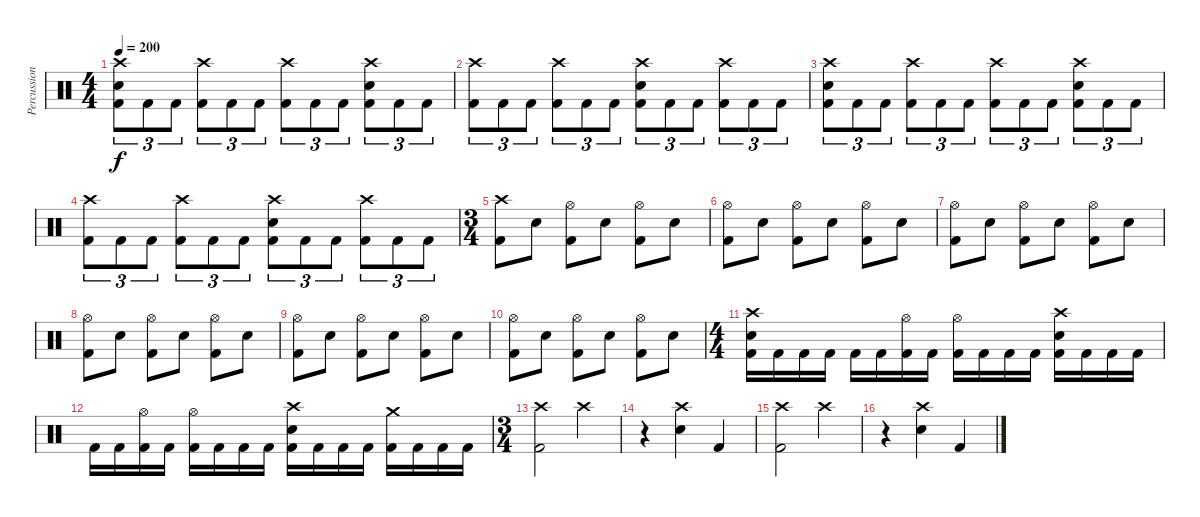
\track ("Percussion" "Percussion") {instrument percussion}
\staff {score}
\articulation defaults
\ts (4 4)
\tempo 200
\clef neutral
\ks c
("Crash high (hit)" "Electric Snare (hit)" "Kick (hit) 2").8{tu (3 2) dy f} "Kick (hit) 2".8{tu (3 2)} "Kick (hit) 2".8{tu (3 2)} ("Crash high (hit)" "Kick (hit) 2").8{tu (3 2)} "Kick (hit) 2".8{tu (3 2)} "Kick (hit) 2".8{tu (3 2)} ("Crash high (hit)" "Kick (hit) 2").8{tu (3 2)} "Kick (hit) 2".8{tu (3 2)} "Kick (hit) 2".8{tu (3 2)} ("Crash high (hit)" "Electric Snare (hit)" "Kick (hit) 2").8{tu (3 2)} "Kick (hit) 2".8{tu (3 2)} "Kick (hit) 2".8{tu (3 2)} |
("Crash high (hit)" "Kick (hit) 2").8{tu (3 2)} "Kick (hit) 2".8{tu (3 2)} "Kick (hit) 2".8{tu (3 2)} ("Crash high (hit)" "Kick (hit) 2").8{tu (3 2)} "Kick (hit) 2".8{tu (3 2)} "Kick (hit) 2".8{tu (3 2)} ("Crash high (hit)" "Electric Snare (hit)" "Kick (hit) 2").8{tu (3 2)} "Kick (hit) 2".8{tu (3 2)} "Kick (hit) 2".8{tu (3 2)} ("Crash high (hit)" "Kick (hit) 2").8{tu (3 2)} "Kick (hit) 2".8{tu (3 2)} "Kick (hit) 2".8{tu (3 2)} |
("Crash high (hit)" "Electric Snare (hit)" "Kick (hit) 2").8{tu (3 2)} "Kick (hit) 2".8{tu (3 2)} "Kick (hit) 2".8{tu (3 2)} ("Crash high (hit)" "Kick (hit) 2").8{tu (3 2)} "Kick (hit) 2".8{tu (3 2)} "Kick (hit) 2".8{tu (3 2)} ("Crash high (hit)" "Kick (hit) 2").8{tu (3 2)} "Kick (hit) 2".8{tu (3 2)} "Kick (hit) 2".8{tu (3 2)} ("Crash high (hit)" "Electric Snare (hit)" "Kick (hit) 2").8{tu (3 2)} "Kick (hit) 2".8{tu (3 2)} "Kick (hit) 2".8{tu (3 2)} |
("Crash high (hit)" "Kick (hit) 2").8{tu (3 2)} "Kick (hit) 2".8{tu (3 2)} "Kick (hit) 2".8{tu (3 2)} ("Crash high (hit)" "Kick (hit) 2").8{tu (3 2)} "Kick (hit) 2".8{tu (3 2)} "Kick (hit) 2".8{tu (3 2)} ("Crash high (hit)" "Electric Snare (hit)" "Kick (hit) 2").8{tu (3 2)} "Kick (hit) 2".8{tu (3 2)} "Kick (hit) 2".8{tu (3 2)} ("Crash high (hit)" "Kick (hit) 2").8{tu (3 2)} "Kick (hit) 2".8{tu (3 2)} "Kick (hit) 2".8{tu (3 2)} |
\ts (3 4)
("Crash high (hit)" "Kick (hit) 2").8 "Electric Snare (hit)".8 ("Hi-Hat (open)" "Kick (hit) 2").8 "Electric Snare (hit)".8 ("Hi-Hat (open)" "Kick (hit) 2").8 "Electric Snare (hit)".8 |
("Hi-Hat (open)" "Kick (hit) 2").8 "Electric Snare (hit)".8 ("Hi-Hat (open)" "Kick (hit) 2").8 "Electric Snare (hit)".8 ("Hi-Hat (open)" "Kick (hit) 2").8 "Electric Snare (hit)".8 |
("Hi-Hat (open)" "Kick (hit) 2").8 "Electric Snare (hit)".8 ("Hi-Hat (open)" "Kick (hit) 2").8 "Electric Snare (hit)".8 ("Hi-Hat (open)" "Kick (hit) 2").8 "Electric Snare (hit)".8 |
("Hi-Hat (open)" "Kick (hit) 2").8 "Electric Snare (hit)".8 ("Hi-Hat (open)" "Kick (hit) 2").8 "Electric Snare (hit)".8 ("Hi-Hat (open)" "Kick (hit) 2").8 "Electric Snare (hit)".8 |
("Hi-Hat (open)" "Kick (hit) 2").8 "Electric Snare (hit)".8 ("Hi-Hat (open)" "Kick (hit) 2").8 "Electric Snare (hit)".8 ("Hi-Hat (open)" "Kick (hit) 2").8 "Electric Snare (hit)".8 |
("Hi-Hat (open)" "Kick (hit) 2").8 "Electric Snare (hit)".8 ("Hi-Hat (open)" "Kick (hit) 2").8 "Electric Snare (hit)".8 ("Hi-Hat (open)" "Kick (hit) 2").8 "Electric Snare (hit)".8 |
\ts (4 4)
("Crash high (hit)" "Electric Snare (hit)" "Kick (hit) 2").16 "Kick (hit) 2".16 "Kick (hit) 2".16 "Kick (hit) 2".16 "Kick (hit) 2".16 "Kick (hit) 2".16 ("Hi-Hat (open)" "Kick (hit) 2").16 "Kick (hit) 2".16 ("Hi-Hat (open)" "Kick (hit) 2").16 "Kick (hit) 2".16 "Kick (hit) 2".16 "Kick (hit) 2".16 ("Crash high (hit)" "Electric Snare (hit)" "Kick (hit) 2").16 "Kick (hit) 2".16 "Kick (hit) 2".16 "Kick (hit) 2".16 |
"Kick (hit) 2".16 "Kick (hit) 2".16 ("Hi-Hat (open)" "Kick (hit) 2").16 "Kick (hit) 2".16 ("Hi-Hat (open)" "Kick (hit) 2").16 "Kick (hit) 2".16 "Kick (hit) 2".16 "Kick (hit) 2".16 ("Crash high (hit)" "Electric Snare (hit)" "Kick (hit) 2").16 "Kick (hit) 2".16 "Kick (hit) 2".16 "Kick (hit) 2".16 ("Crash medium (hit)" "Kick (hit) 2").16 "Kick (hit) 2".16 "Kick (hit) 2".16 "Kick (hit) 2".16 |
\ts (3 4)
("Crash high (hit)" "Kick (hit) 2").2 "Crash high (hit)".4 |
r.4 ("Crash high (hit)" "Electric Snare (hit)").4 "Kick (hit) 2".4 |
("Crash high (hit)" "Kick (hit) 2").2 "Crash high (hit)".4 |
r.4 ("Crash high (hit)" "Electric Snare (hit)").4 "Kick (hit) 2".4
